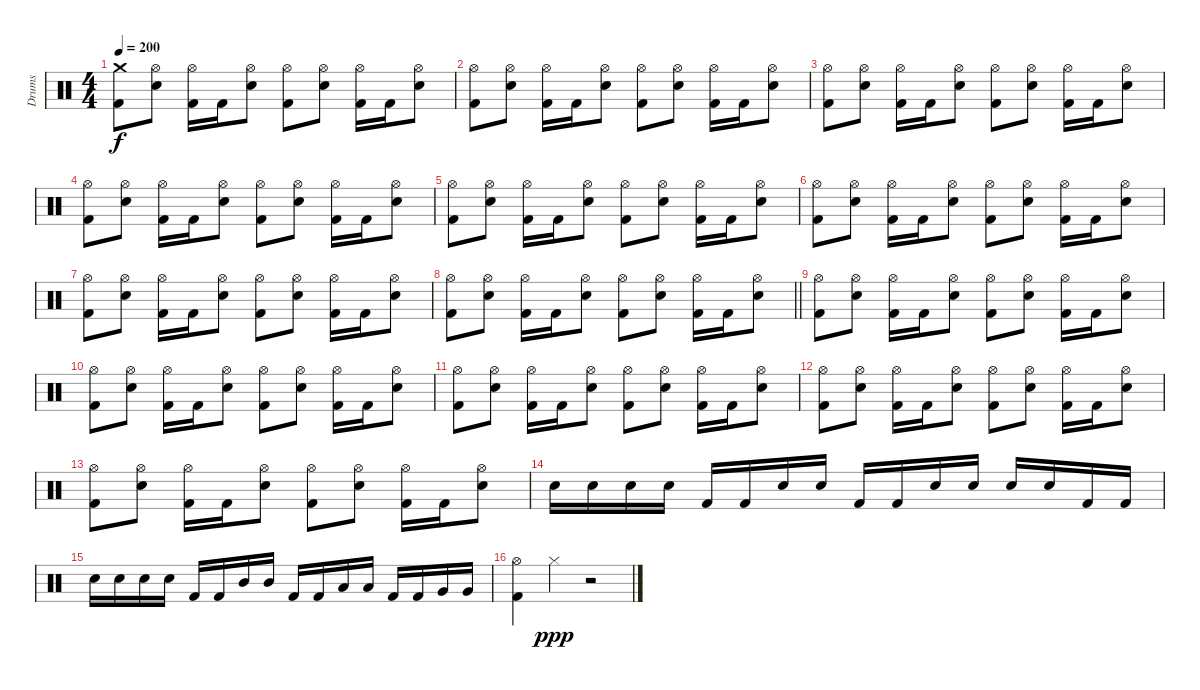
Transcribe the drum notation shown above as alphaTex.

\track ("Drums" "Drums") {instrument percussion}
\staff {score}
\articulation defaults
\ts (4 4)
\section ("" "")
\tempo 200
\clef neutral
\ks c
("Kick (hit) 2" "Crash medium (hit)").8{dy f} ("Snare (hit) 2" "Hi-Hat (open)").8 ("Kick (hit) 2" "Hi-Hat (open)").16 "Kick (hit) 2".16 ("Snare (hit) 2" "Hi-Hat (open)").8 ("Kick (hit) 2" "Hi-Hat (open)").8 ("Snare (hit) 2" "Hi-Hat (open)").8 ("Kick (hit) 2" "Hi-Hat (open)").16 "Kick (hit) 2".16 ("Snare (hit) 2" "Hi-Hat (open)").8 |
("Kick (hit) 2" "Hi-Hat (open)").8 ("Snare (hit) 2" "Hi-Hat (open)").8 ("Kick (hit) 2" "Hi-Hat (open)").16 "Kick (hit) 2".16 ("Snare (hit) 2" "Hi-Hat (open)").8 ("Kick (hit) 2" "Hi-Hat (open)").8 ("Snare (hit) 2" "Hi-Hat (open)").8 ("Kick (hit) 2" "Hi-Hat (open)").16 "Kick (hit) 2".16 ("Snare (hit) 2" "Hi-Hat (open)").8 |
("Kick (hit) 2" "Hi-Hat (open)").8 ("Snare (hit) 2" "Hi-Hat (open)").8 ("Kick (hit) 2" "Hi-Hat (open)").16 "Kick (hit) 2".16 ("Snare (hit) 2" "Hi-Hat (open)").8 ("Kick (hit) 2" "Hi-Hat (open)").8 ("Snare (hit) 2" "Hi-Hat (open)").8 ("Kick (hit) 2" "Hi-Hat (open)").16 "Kick (hit) 2".16 ("Snare (hit) 2" "Hi-Hat (open)").8 |
("Kick (hit) 2" "Hi-Hat (open)").8 ("Snare (hit) 2" "Hi-Hat (open)").8 ("Kick (hit) 2" "Hi-Hat (open)").16 "Kick (hit) 2".16 ("Snare (hit) 2" "Hi-Hat (open)").8 ("Kick (hit) 2" "Hi-Hat (open)").8 ("Snare (hit) 2" "Hi-Hat (open)").8 ("Kick (hit) 2" "Hi-Hat (open)").16 "Kick (hit) 2".16 ("Snare (hit) 2" "Hi-Hat (open)").8 |
("Kick (hit) 2" "Hi-Hat (open)").8 ("Snare (hit) 2" "Hi-Hat (open)").8 ("Kick (hit) 2" "Hi-Hat (open)").16 "Kick (hit) 2".16 ("Snare (hit) 2" "Hi-Hat (open)").8 ("Kick (hit) 2" "Hi-Hat (open)").8 ("Snare (hit) 2" "Hi-Hat (open)").8 ("Kick (hit) 2" "Hi-Hat (open)").16 "Kick (hit) 2".16 ("Snare (hit) 2" "Hi-Hat (open)").8 |
("Kick (hit) 2" "Hi-Hat (open)").8 ("Snare (hit) 2" "Hi-Hat (open)").8 ("Kick (hit) 2" "Hi-Hat (open)").16 "Kick (hit) 2".16 ("Snare (hit) 2" "Hi-Hat (open)").8 ("Kick (hit) 2" "Hi-Hat (open)").8 ("Snare (hit) 2" "Hi-Hat (open)").8 ("Kick (hit) 2" "Hi-Hat (open)").16 "Kick (hit) 2".16 ("Snare (hit) 2" "Hi-Hat (open)").8 |
("Kick (hit) 2" "Hi-Hat (open)").8 ("Snare (hit) 2" "Hi-Hat (open)").8 ("Kick (hit) 2" "Hi-Hat (open)").16 "Kick (hit) 2".16 ("Snare (hit) 2" "Hi-Hat (open)").8 ("Kick (hit) 2" "Hi-Hat (open)").8 ("Snare (hit) 2" "Hi-Hat (open)").8 ("Kick (hit) 2" "Hi-Hat (open)").16 "Kick (hit) 2".16 ("Snare (hit) 2" "Hi-Hat (open)").8 |
\barLineRight lightlight
("Kick (hit) 2" "Hi-Hat (open)").8 ("Snare (hit) 2" "Hi-Hat (open)").8 ("Kick (hit) 2" "Hi-Hat (open)").16 "Kick (hit) 2".16 ("Snare (hit) 2" "Hi-Hat (open)").8 ("Kick (hit) 2" "Hi-Hat (open)").8 ("Snare (hit) 2" "Hi-Hat (open)").8 ("Kick (hit) 2" "Hi-Hat (open)").16 "Kick (hit) 2".16 ("Snare (hit) 2" "Hi-Hat (open)").8 |
\section ("" "")
("Kick (hit) 2" "Hi-Hat (open)").8 ("Snare (hit) 2" "Hi-Hat (open)").8 ("Kick (hit) 2" "Hi-Hat (open)").16 "Kick (hit) 2".16 ("Snare (hit) 2" "Hi-Hat (open)").8 ("Kick (hit) 2" "Hi-Hat (open)").8 ("Snare (hit) 2" "Hi-Hat (open)").8 ("Kick (hit) 2" "Hi-Hat (open)").16 "Kick (hit) 2".16 ("Snare (hit) 2" "Hi-Hat (open)").8 |
("Kick (hit) 2" "Hi-Hat (open)").8 ("Snare (hit) 2" "Hi-Hat (open)").8 ("Kick (hit) 2" "Hi-Hat (open)").16 "Kick (hit) 2".16 ("Snare (hit) 2" "Hi-Hat (open)").8 ("Kick (hit) 2" "Hi-Hat (open)").8 ("Snare (hit) 2" "Hi-Hat (open)").8 ("Kick (hit) 2" "Hi-Hat (open)").16 "Kick (hit) 2".16 ("Snare (hit) 2" "Hi-Hat (open)").8 |
("Kick (hit) 2" "Hi-Hat (open)").8 ("Snare (hit) 2" "Hi-Hat (open)").8 ("Kick (hit) 2" "Hi-Hat (open)").16 "Kick (hit) 2".16 ("Snare (hit) 2" "Hi-Hat (open)").8 ("Kick (hit) 2" "Hi-Hat (open)").8 ("Snare (hit) 2" "Hi-Hat (open)").8 ("Kick (hit) 2" "Hi-Hat (open)").16 "Kick (hit) 2".16 ("Snare (hit) 2" "Hi-Hat (open)").8 |
("Kick (hit) 2" "Hi-Hat (open)").8 ("Snare (hit) 2" "Hi-Hat (open)").8 ("Kick (hit) 2" "Hi-Hat (open)").16 "Kick (hit) 2".16 ("Snare (hit) 2" "Hi-Hat (open)").8 ("Kick (hit) 2" "Hi-Hat (open)").8 ("Snare (hit) 2" "Hi-Hat (open)").8 ("Kick (hit) 2" "Hi-Hat (open)").16 "Kick (hit) 2".16 ("Snare (hit) 2" "Hi-Hat (open)").8 |
("Kick (hit) 2" "Hi-Hat (open)").8 ("Snare (hit) 2" "Hi-Hat (open)").8 ("Kick (hit) 2" "Hi-Hat (open)").16 "Kick (hit) 2".16 ("Snare (hit) 2" "Hi-Hat (open)").8 ("Kick (hit) 2" "Hi-Hat (open)").8 ("Snare (hit) 2" "Hi-Hat (open)").8 ("Kick (hit) 2" "Hi-Hat (open)").16 "Kick (hit) 2".16 ("Snare (hit) 2" "Hi-Hat (open)").8 |
"Snare (hit) 2".16 "Snare (hit) 2".16 "Snare (hit) 2".16 "Snare (hit) 2".16 "Kick (hit) 2".16 "Kick (hit) 2".16 "Snare (hit) 2".16 "Snare (hit) 2".16 "Kick (hit) 2".16 "Kick (hit) 2".16 "Snare (hit) 2".16 "Snare (hit) 2".16 "Snare (hit) 2".16 "Snare (hit) 2".16 "Kick (hit) 2".16 "Kick (hit) 2".16 |
"Snare (hit) 2".16 "Snare (hit) 2".16 "Snare (hit) 2".16 "Snare (hit) 2".16 "Kick (hit) 2".16 "Kick (hit) 2".16 "Mid Tom (hit)".16 "Mid Tom (hit)".16 "Kick (hit) 2".16 "Kick (hit) 2".16 "Low Tom (hit)".16 "Low Tom (hit)".16 "Kick (hit) 2".16 "Kick (hit) 2".16 "Very Low Tom (hit)".16 "Very Low Tom (hit)".16 |
("Kick (hit) 2" "Hi-Hat (open)").4 "Hi-Hat (closed)".4{dy ppp} r.2
